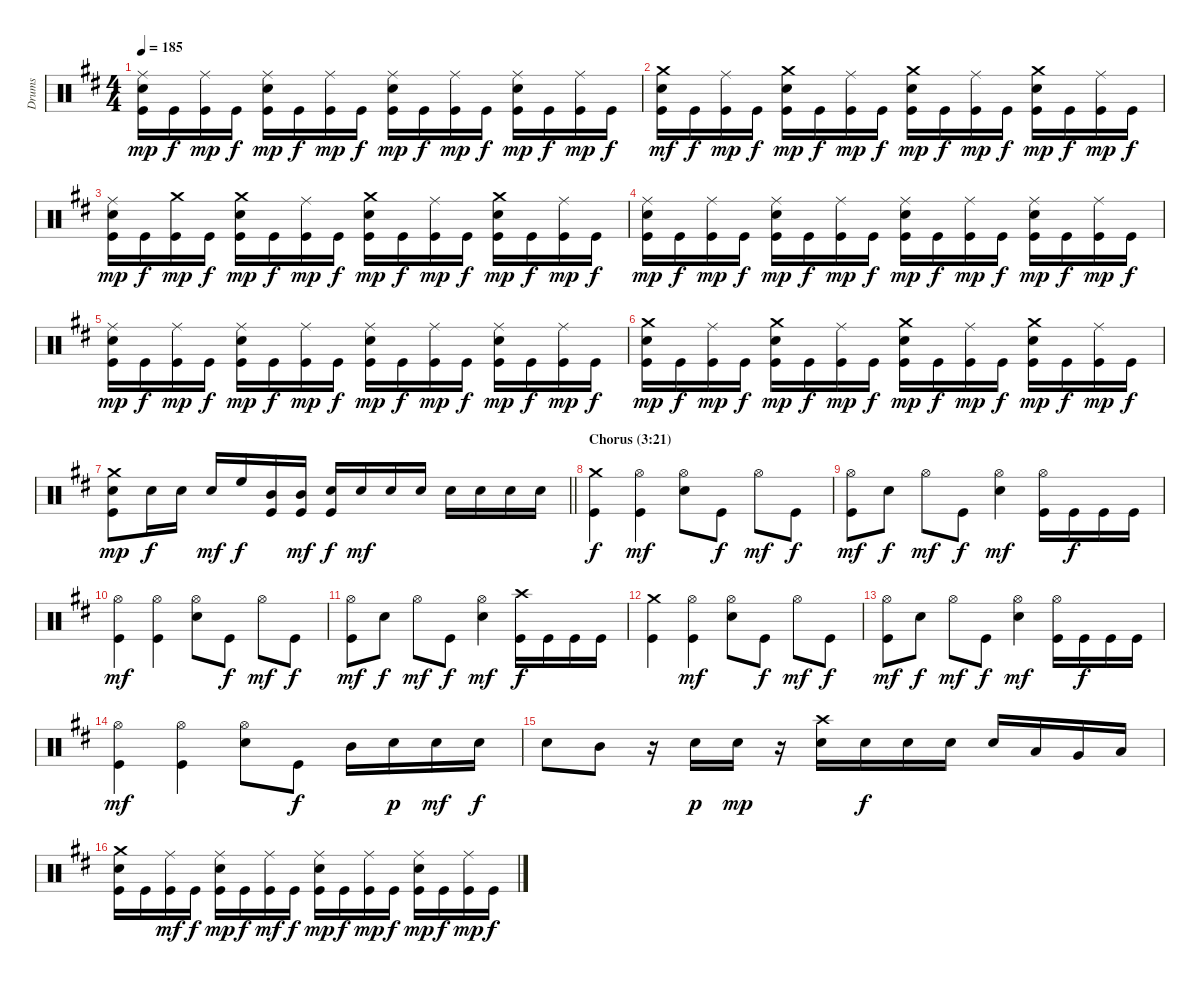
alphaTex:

\track ("Drums" "Drums") {instrument percussion}
\staff {score}
\articulation defaults
\ts (4 4)
\tempo 185
\clef neutral
\ks bminor
("Ride (middle)" "Snare (hit) 2" "Kick (hit)").16{dy mp} "Kick (hit)".16{dy f} ("Ride (middle)" "Kick (hit)").16{dy mp} "Kick (hit)".16{dy f} ("Ride (middle)" "Snare (hit) 2" "Kick (hit)").16{dy mp} "Kick (hit)".16{dy f} ("Ride (middle)" "Kick (hit)").16{dy mp} "Kick (hit)".16{dy f} ("Ride (middle)" "Snare (hit) 2" "Kick (hit)").16{dy mp} "Kick (hit)".16{dy f} ("Ride (middle)" "Kick (hit)").16{dy mp} "Kick (hit)".16{dy f} ("Ride (middle)" "Snare (hit) 2" "Kick (hit)").16{dy mp} "Kick (hit)".16{dy f} ("Ride (middle)" "Kick (hit)").16{dy mp} "Kick (hit)".16{dy f} |
("Crash medium (hit)" "Snare (hit) 2" "Kick (hit)").16{dy mf} "Kick (hit)".16{dy f} ("Ride (middle)" "Kick (hit)").16{dy mp} "Kick (hit)".16{dy f} ("Crash medium (hit)" "Snare (hit) 2" "Kick (hit)").16{dy mp} "Kick (hit)".16{dy f} ("Ride (middle)" "Kick (hit)").16{dy mp} "Kick (hit)".16{dy f} ("Crash medium (hit)" "Snare (hit) 2" "Kick (hit)").16{dy mp} "Kick (hit)".16{dy f} ("Ride (middle)" "Kick (hit)").16{dy mp} "Kick (hit)".16{dy f} ("Crash medium (hit)" "Snare (hit) 2" "Kick (hit)").16{dy mp} "Kick (hit)".16{dy f} ("Ride (middle)" "Kick (hit)").16{dy mp} "Kick (hit)".16{dy f} |
("Ride (middle)" "Snare (hit) 2" "Kick (hit)").16{dy mp} "Kick (hit)".16{dy f} ("Crash medium (hit)" "Kick (hit)").16{dy mp} "Kick (hit)".16{dy f} ("Crash medium (hit)" "Snare (hit) 2" "Kick (hit)").16{dy mp} "Kick (hit)".16{dy f} ("Ride (middle)" "Kick (hit)").16{dy mp} "Kick (hit)".16{dy f} ("Crash medium (hit)" "Snare (hit) 2" "Kick (hit)").16{dy mp} "Kick (hit)".16{dy f} ("Ride (middle)" "Kick (hit)").16{dy mp} "Kick (hit)".16{dy f} ("Crash medium (hit)" "Snare (hit) 2" "Kick (hit)").16{dy mp} "Kick (hit)".16{dy f} ("Ride (middle)" "Kick (hit)").16{dy mp} "Kick (hit)".16{dy f} |
("Ride (middle)" "Snare (hit) 2" "Kick (hit)").16{dy mp} "Kick (hit)".16{dy f} ("Ride (middle)" "Kick (hit)").16{dy mp} "Kick (hit)".16{dy f} ("Ride (middle)" "Snare (hit) 2" "Kick (hit)").16{dy mp} "Kick (hit)".16{dy f} ("Ride (middle)" "Kick (hit)").16{dy mp} "Kick (hit)".16{dy f} ("Ride (middle)" "Snare (hit) 2" "Kick (hit)").16{dy mp} "Kick (hit)".16{dy f} ("Ride (middle)" "Kick (hit)").16{dy mp} "Kick (hit)".16{dy f} ("Ride (middle)" "Snare (hit) 2" "Kick (hit)").16{dy mp} "Kick (hit)".16{dy f} ("Ride (middle)" "Kick (hit)").16{dy mp} "Kick (hit)".16{dy f} |
("Ride (middle)" "Snare (hit) 2" "Kick (hit)").16{dy mp} "Kick (hit)".16{dy f} ("Ride (middle)" "Kick (hit)").16{dy mp} "Kick (hit)".16{dy f} ("Ride (middle)" "Snare (hit) 2" "Kick (hit)").16{dy mp} "Kick (hit)".16{dy f} ("Ride (middle)" "Kick (hit)").16{dy mp} "Kick (hit)".16{dy f} ("Ride (middle)" "Snare (hit) 2" "Kick (hit)").16{dy mp} "Kick (hit)".16{dy f} ("Ride (middle)" "Kick (hit)").16{dy mp} "Kick (hit)".16{dy f} ("Ride (middle)" "Snare (hit) 2" "Kick (hit)").16{dy mp} "Kick (hit)".16{dy f} ("Ride (middle)" "Kick (hit)").16{dy mp} "Kick (hit)".16{dy f} |
("Crash medium (hit)" "Snare (hit) 2" "Kick (hit)").16{dy mp} "Kick (hit)".16{dy f} ("Ride (middle)" "Kick (hit)").16{dy mp} "Kick (hit)".16{dy f} ("Crash medium (hit)" "Snare (hit) 2" "Kick (hit)").16{dy mp} "Kick (hit)".16{dy f} ("Ride (middle)" "Kick (hit)").16{dy mp} "Kick (hit)".16{dy f} ("Crash medium (hit)" "Snare (hit) 2" "Kick (hit)").16{dy mp} "Kick (hit)".16{dy f} ("Ride (middle)" "Kick (hit)").16{dy mp} "Kick (hit)".16{dy f} ("Crash medium (hit)" "Snare (hit) 2" "Kick (hit)").16{dy mp} "Kick (hit)".16{dy f} ("Ride (middle)" "Kick (hit)").16{dy mp} "Kick (hit)".16{dy f} |
\barLineRight lightlight
("Crash medium (hit)" "Snare (hit) 2" "Kick (hit)").8{dy mp} "Snare (hit) 2".16{dy f} "Snare (hit) 2".16 "Snare (hit) 2".16{dy mf} "High Floor Tom (hit)".16{dy f} ("Mid Tom (hit)" "Kick (hit)").16 ("Mid Tom (hit)" "Kick (hit)").16{dy mf} ("Snare (hit) 2" "Kick (hit)").16{dy f} "Snare (hit) 2".16{dy mf} "Snare (hit) 2".16 "Snare (hit) 2".16 "Snare (hit) 2".16 "Snare (hit) 2".16 "Snare (hit) 2".16 "Snare (hit) 2".16 |
\section ("" "Chorus (3:21)")
("Crash medium (hit)" "Kick (hit)").4{dy f} ("Hi-Hat (open)" "Kick (hit)").4{dy mf} ("Hi-Hat (open)" "Snare (hit) 2").8 "Kick (hit)".8{dy f} "Hi-Hat (open)".8{dy mf} "Kick (hit)".8{dy f} |
("Hi-Hat (open)" "Kick (hit)").8{dy mf} "Snare (hit) 2".8{dy f} "Hi-Hat (open)".8{dy mf} "Kick (hit)".8{dy f} ("Hi-Hat (open)" "Snare (hit) 2").4{dy mf} ("Hi-Hat (open)" "Kick (hit)").16 "Kick (hit)".16{dy f} "Kick (hit)".16 "Kick (hit)".16 |
("Hi-Hat (open)" "Kick (hit)").4{dy mf} ("Hi-Hat (open)" "Kick (hit)").4 ("Hi-Hat (open)" "Snare (hit) 2").8 "Kick (hit)".8{dy f} "Hi-Hat (open)".8{dy mf} "Kick (hit)".8{dy f} |
("Hi-Hat (open)" "Kick (hit)").8{dy mf} "Snare (hit) 2".8{dy f} "Hi-Hat (open)".8{dy mf} "Kick (hit)".8{dy f} ("Hi-Hat (open)" "Snare (hit) 2").4{dy mf} ("Crash high (hit)" "Kick (hit)").16{dy f} "Kick (hit)".16 "Kick (hit)".16 "Kick (hit)".16 |
("Crash medium (hit)" "Kick (hit)").4 ("Hi-Hat (open)" "Kick (hit)").4{dy mf} ("Hi-Hat (open)" "Snare (hit) 2").8 "Kick (hit)".8{dy f} "Hi-Hat (open)".8{dy mf} "Kick (hit)".8{dy f} |
("Hi-Hat (open)" "Kick (hit)").8{dy mf} "Snare (hit) 2".8{dy f} "Hi-Hat (open)".8{dy mf} "Kick (hit)".8{dy f} ("Hi-Hat (open)" "Snare (hit) 2").4{dy mf} ("Hi-Hat (open)" "Kick (hit)").16 "Kick (hit)".16{dy f} "Kick (hit)".16 "Kick (hit)".16 |
("Hi-Hat (open)" "Kick (hit)").4{dy mf} ("Hi-Hat (open)" "Kick (hit)").4 ("Hi-Hat (open)" "Snare (hit) 2").8 "Kick (hit)".8{dy f} "Mid Tom (hit)".16 "Snare (hit) 2".16{dy p} "Snare (hit) 2".16{dy mf} "Snare (hit) 2".16{dy f} |
"Snare (hit) 2".8 "Mid Tom (hit)".8 r.16 "Snare (hit) 2".16{dy p} "Snare (hit) 2".16{dy mp} r.16 ("Crash high (hit)" "Snare (hit) 2").16 "Snare (hit) 2".16{dy f} "Snare (hit) 2".16 "Snare (hit) 2".16 "Snare (hit) 2".16 "Low Tom (hit)".16 "Very Low Tom (hit)".16 "Low Floor Tom (hit)".16 |
("Crash medium (hit)" "Snare (hit) 2" "Kick (hit)").16 "Kick (hit)".16 ("Ride (middle)" "Kick (hit)").16{dy mf} "Kick (hit)".16{dy f} ("Ride (middle)" "Snare (hit) 2" "Kick (hit)").16{dy mp} "Kick (hit)".16{dy f} ("Ride (middle)" "Kick (hit)").16{dy mf} "Kick (hit)".16{dy f} ("Ride (middle)" "Snare (hit) 2" "Kick (hit)").16{dy mp} "Kick (hit)".16{dy f} ("Ride (middle)" "Kick (hit)").16{dy mp} "Kick (hit)".16{dy f} ("Ride (middle)" "Snare (hit) 2" "Kick (hit)").16{dy mp} "Kick (hit)".16{dy f} ("Ride (middle)" "Kick (hit)").16{dy mp} "Kick (hit)".16{dy f}
